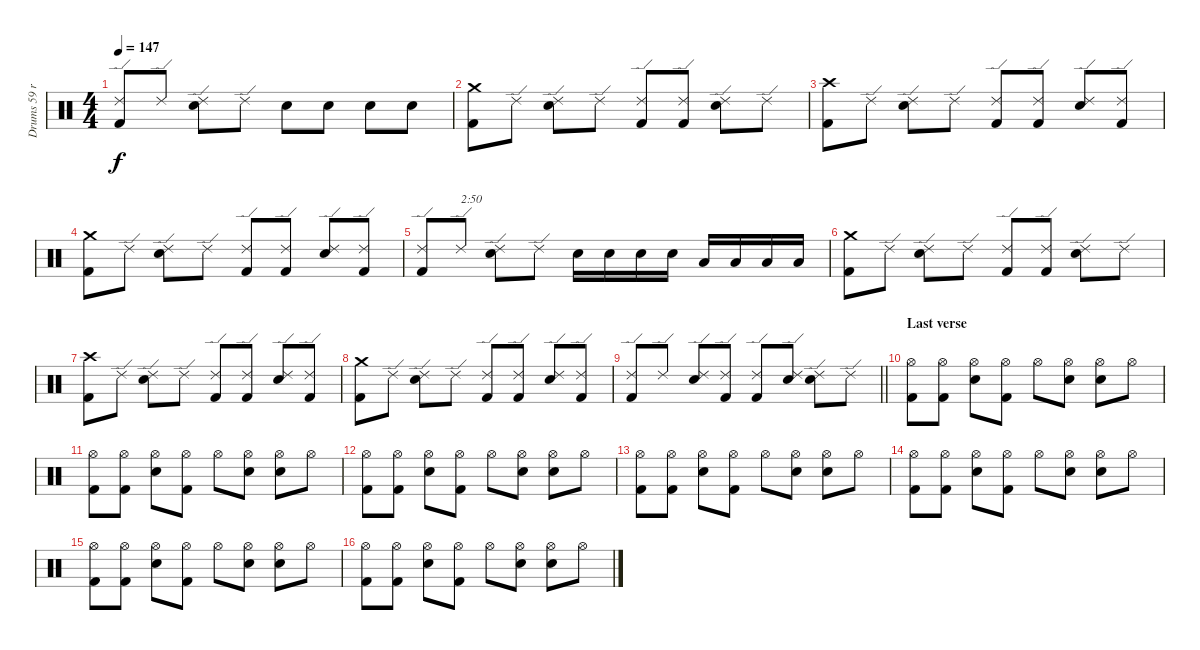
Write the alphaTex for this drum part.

\track ("Drums 59 ride" "Drums 59 r") {mute instrument percussion}
\staff {score}
\articulation defaults
\ts (4 4)
\tempo 147
\clef neutral
\ks c
("Ride (edge) 2" "Kick (hit) 2").8{dy f} "Ride (edge) 2".8 ("Ride (edge) 2" "Snare (hit) 2").8 "Ride (edge) 2".8 "Snare (hit) 2".8 "Snare (hit) 2".8 "Snare (hit) 2".8 "Snare (hit) 2".8 |
("Crash medium (hit)" "Kick (hit) 2").8 "Ride (edge) 2".8 ("Ride (edge) 2" "Snare (hit) 2").8 "Ride (edge) 2".8 ("Ride (edge) 2" "Kick (hit) 2").8 ("Ride (edge) 2" "Kick (hit) 2").8 ("Ride (edge) 2" "Snare (hit) 2").8 "Ride (edge) 2".8 |
("Crash high (hit)" "Kick (hit) 2").8 "Ride (edge) 2".8 ("Ride (edge) 2" "Snare (hit) 2").8 "Ride (edge) 2".8 ("Ride (edge) 2" "Kick (hit) 2").8 ("Ride (edge) 2" "Kick (hit) 2").8 ("Ride (edge) 2" "Snare (hit) 2").8 ("Ride (edge) 2" "Kick (hit) 2").8 |
("Crash medium (hit)" "Kick (hit) 2").8 "Ride (edge) 2".8 ("Ride (edge) 2" "Snare (hit) 2").8 "Ride (edge) 2".8 ("Ride (edge) 2" "Kick (hit) 2").8 ("Ride (edge) 2" "Kick (hit) 2").8 ("Ride (edge) 2" "Snare (hit) 2").8 ("Ride (edge) 2" "Kick (hit) 2").8 |
("Ride (edge) 2" "Kick (hit) 2").8 "Ride (edge) 2".8{txt "2:50"} ("Ride (edge) 2" "Snare (hit) 2").8 "Ride (edge) 2".8 "Snare (hit) 2".16 "Snare (hit) 2".16 "Snare (hit) 2".16 "Snare (hit) 2".16 "Low Tom (hit)".16 "Low Tom (hit)".16 "Low Tom (hit)".16 "Low Tom (hit)".16 |
("Crash medium (hit)" "Kick (hit) 2").8 "Ride (edge) 2".8 ("Ride (edge) 2" "Snare (hit) 2").8 "Ride (edge) 2".8 ("Ride (edge) 2" "Kick (hit) 2").8 ("Ride (edge) 2" "Kick (hit) 2").8 ("Ride (edge) 2" "Snare (hit) 2").8 "Ride (edge) 2".8 |
("Crash high (hit)" "Kick (hit) 2").8 "Ride (edge) 2".8 ("Ride (edge) 2" "Snare (hit) 2").8 "Ride (edge) 2".8 ("Ride (edge) 2" "Kick (hit) 2").8 ("Ride (edge) 2" "Kick (hit) 2").8 ("Ride (edge) 2" "Snare (hit) 2").8 ("Ride (edge) 2" "Kick (hit) 2").8 |
("Crash medium (hit)" "Kick (hit) 2").8 "Ride (edge) 2".8 ("Ride (edge) 2" "Snare (hit) 2").8 "Ride (edge) 2".8 ("Ride (edge) 2" "Kick (hit) 2").8 ("Ride (edge) 2" "Kick (hit) 2").8 ("Ride (edge) 2" "Snare (hit) 2").8 ("Ride (edge) 2" "Kick (hit) 2").8 |
\barLineRight lightlight
("Ride (edge) 2" "Kick (hit) 2").8 "Ride (edge) 2".8 ("Ride (edge) 2" "Snare (hit) 2").8 ("Ride (edge) 2" "Kick (hit) 2").8 ("Ride (edge) 2" "Kick (hit) 2").8 ("Ride (edge) 2" "Snare (hit) 2").8 ("Ride (edge) 2" "Snare (hit) 2").8 "Ride (edge) 2".8 |
\section ("" "Last verse")
("Hi-Hat (open)" "Kick (hit) 2").8 ("Hi-Hat (open)" "Kick (hit) 2").8 ("Hi-Hat (open)" "Snare (hit) 2").8 ("Hi-Hat (open)" "Kick (hit) 2").8 "Hi-Hat (open)".8 ("Hi-Hat (open)" "Snare (hit) 2").8 ("Hi-Hat (open)" "Snare (hit) 2").8 "Hi-Hat (open)".8 |
("Hi-Hat (open)" "Kick (hit) 2").8 ("Hi-Hat (open)" "Kick (hit) 2").8 ("Hi-Hat (open)" "Snare (hit) 2").8 ("Hi-Hat (open)" "Kick (hit) 2").8 "Hi-Hat (open)".8 ("Hi-Hat (open)" "Snare (hit) 2").8 ("Hi-Hat (open)" "Snare (hit) 2").8 "Hi-Hat (open)".8 |
("Hi-Hat (open)" "Kick (hit) 2").8 ("Hi-Hat (open)" "Kick (hit) 2").8 ("Hi-Hat (open)" "Snare (hit) 2").8 ("Hi-Hat (open)" "Kick (hit) 2").8 "Hi-Hat (open)".8 ("Hi-Hat (open)" "Snare (hit) 2").8 ("Hi-Hat (open)" "Snare (hit) 2").8 "Hi-Hat (open)".8 |
("Hi-Hat (open)" "Kick (hit) 2").8 ("Hi-Hat (open)" "Kick (hit) 2").8 ("Hi-Hat (open)" "Snare (hit) 2").8 ("Hi-Hat (open)" "Kick (hit) 2").8 "Hi-Hat (open)".8 ("Hi-Hat (open)" "Snare (hit) 2").8 ("Hi-Hat (open)" "Snare (hit) 2").8 "Hi-Hat (open)".8 |
("Hi-Hat (open)" "Kick (hit) 2").8 ("Hi-Hat (open)" "Kick (hit) 2").8 ("Hi-Hat (open)" "Snare (hit) 2").8 ("Hi-Hat (open)" "Kick (hit) 2").8 "Hi-Hat (open)".8 ("Hi-Hat (open)" "Snare (hit) 2").8 ("Hi-Hat (open)" "Snare (hit) 2").8 "Hi-Hat (open)".8 |
("Hi-Hat (open)" "Kick (hit) 2").8 ("Hi-Hat (open)" "Kick (hit) 2").8 ("Hi-Hat (open)" "Snare (hit) 2").8 ("Hi-Hat (open)" "Kick (hit) 2").8 "Hi-Hat (open)".8 ("Hi-Hat (open)" "Snare (hit) 2").8 ("Hi-Hat (open)" "Snare (hit) 2").8 "Hi-Hat (open)".8 |
("Hi-Hat (open)" "Kick (hit) 2").8 ("Hi-Hat (open)" "Kick (hit) 2").8 ("Hi-Hat (open)" "Snare (hit) 2").8 ("Hi-Hat (open)" "Kick (hit) 2").8 "Hi-Hat (open)".8 ("Hi-Hat (open)" "Snare (hit) 2").8 ("Hi-Hat (open)" "Snare (hit) 2").8 "Hi-Hat (open)".8
